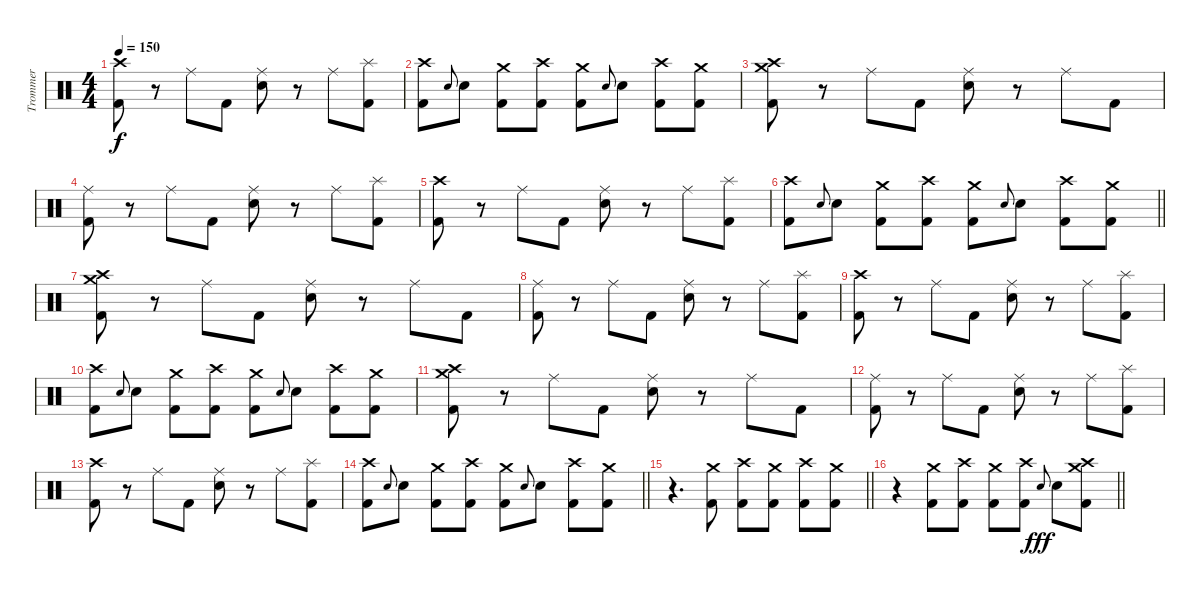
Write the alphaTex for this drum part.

\track ("Trommer" "Trommer") {instrument percussion}
\staff {score}
\articulation defaults
\ts (4 4)
\tempo 150
\clef neutral
\ks c
("Crash high (hit)" "Kick (hit) 2").8{dy f} r.8 "Ride (middle)".8 "Kick (hit) 2".8 ("Ride (middle)" "Electric Snare (hit)").8 r.8 "Ride (middle)".8 ("Splash (hit)" "Kick (hit) 2").8 |
("Crash high (hit)" "Kick (hit) 2").8 "Electric Snare (hit)".8{gr onbeat} "Electric Snare (hit)".8 ("Crash medium (hit)" "Kick (hit) 2").8 ("Crash high (hit)" "Kick (hit) 2").8 ("Crash medium (hit)" "Kick (hit) 2").8 "Electric Snare (hit)".8{gr onbeat} "Electric Snare (hit)".8 ("Crash high (hit)" "Kick (hit) 2").8 ("Crash medium (hit)" "Kick (hit) 2").8 |
("Crash high (hit)" "Crash medium (hit)" "Kick (hit) 2").8 r.8 "Ride (middle)".8 "Kick (hit) 2".8 ("Ride (middle)" "Electric Snare (hit)").8 r.8 "Ride (middle)".8 "Kick (hit) 2".8 |
("Ride (middle)" "Kick (hit) 2").8 r.8 "Ride (middle)".8 "Kick (hit) 2".8 ("Ride (middle)" "Electric Snare (hit)").8 r.8 "Ride (middle)".8 ("Splash (hit)" "Kick (hit) 2").8 |
("Crash high (hit)" "Kick (hit) 2").8 r.8 "Ride (middle)".8 "Kick (hit) 2".8 ("Ride (middle)" "Electric Snare (hit)").8 r.8 "Ride (middle)".8 ("Splash (hit)" "Kick (hit) 2").8 |
\barLineRight lightlight
("Crash high (hit)" "Kick (hit) 2").8 "Electric Snare (hit)".8{gr onbeat} "Electric Snare (hit)".8 ("Crash medium (hit)" "Kick (hit) 2").8 ("Crash high (hit)" "Kick (hit) 2").8 ("Crash medium (hit)" "Kick (hit) 2").8 "Electric Snare (hit)".8{gr onbeat} "Electric Snare (hit)".8 ("Crash high (hit)" "Kick (hit) 2").8 ("Crash medium (hit)" "Kick (hit) 2").8 |
("Crash high (hit)" "Crash medium (hit)" "Kick (hit) 2").8 r.8 "Ride (middle)".8 "Kick (hit) 2".8 ("Ride (middle)" "Electric Snare (hit)").8 r.8 "Ride (middle)".8 "Kick (hit) 2".8 |
("Ride (middle)" "Kick (hit) 2").8 r.8 "Ride (middle)".8 "Kick (hit) 2".8 ("Ride (middle)" "Electric Snare (hit)").8 r.8 "Ride (middle)".8 ("Splash (hit)" "Kick (hit) 2").8 |
("Crash high (hit)" "Kick (hit) 2").8 r.8 "Ride (middle)".8 "Kick (hit) 2".8 ("Ride (middle)" "Electric Snare (hit)").8 r.8 "Ride (middle)".8 ("Splash (hit)" "Kick (hit) 2").8 |
("Crash high (hit)" "Kick (hit) 2").8 "Electric Snare (hit)".8{gr onbeat} "Electric Snare (hit)".8 ("Crash medium (hit)" "Kick (hit) 2").8 ("Crash high (hit)" "Kick (hit) 2").8 ("Crash medium (hit)" "Kick (hit) 2").8 "Electric Snare (hit)".8{gr onbeat} "Electric Snare (hit)".8 ("Crash high (hit)" "Kick (hit) 2").8 ("Crash medium (hit)" "Kick (hit) 2").8 |
("Crash high (hit)" "Crash medium (hit)" "Kick (hit) 2").8 r.8 "Ride (middle)".8 "Kick (hit) 2".8 ("Ride (middle)" "Electric Snare (hit)").8 r.8 "Ride (middle)".8 "Kick (hit) 2".8 |
("Ride (middle)" "Kick (hit) 2").8 r.8 "Ride (middle)".8 "Kick (hit) 2".8 ("Ride (middle)" "Electric Snare (hit)").8 r.8 "Ride (middle)".8 ("Splash (hit)" "Kick (hit) 2").8 |
("Crash high (hit)" "Kick (hit) 2").8 r.8 "Ride (middle)".8 "Kick (hit) 2".8 ("Ride (middle)" "Electric Snare (hit)").8 r.8 "Ride (middle)".8 ("Splash (hit)" "Kick (hit) 2").8 |
\barLineRight lightlight
("Crash high (hit)" "Kick (hit) 2").8 "Electric Snare (hit)".8{gr onbeat} "Electric Snare (hit)".8 ("Crash medium (hit)" "Kick (hit) 2").8 ("Crash high (hit)" "Kick (hit) 2").8 ("Crash medium (hit)" "Kick (hit) 2").8 "Electric Snare (hit)".8{gr onbeat} "Electric Snare (hit)".8 ("Crash high (hit)" "Kick (hit) 2").8 ("Crash medium (hit)" "Kick (hit) 2").8 |
\barLineRight lightlight
r.4{d} ("Crash medium (hit)" "Kick (hit) 2").8 ("Crash high (hit)" "Kick (hit) 2").8 ("Crash medium (hit)" "Kick (hit) 2").8 ("Crash high (hit)" "Kick (hit) 2").8 ("Crash medium (hit)" "Kick (hit) 2").8 |
\barLineRight lightlight
r.4 ("Crash medium (hit)" "Kick (hit) 2").8 ("Crash high (hit)" "Kick (hit) 2").8 ("Crash medium (hit)" "Kick (hit) 2").8 ("Crash high (hit)" "Kick (hit) 2").8 "Electric Snare (hit)".8{gr onbeat dy fff} "Electric Snare (hit)".8 ("Crash high (hit)" "Crash medium (hit)" "Kick (hit) 2").8
